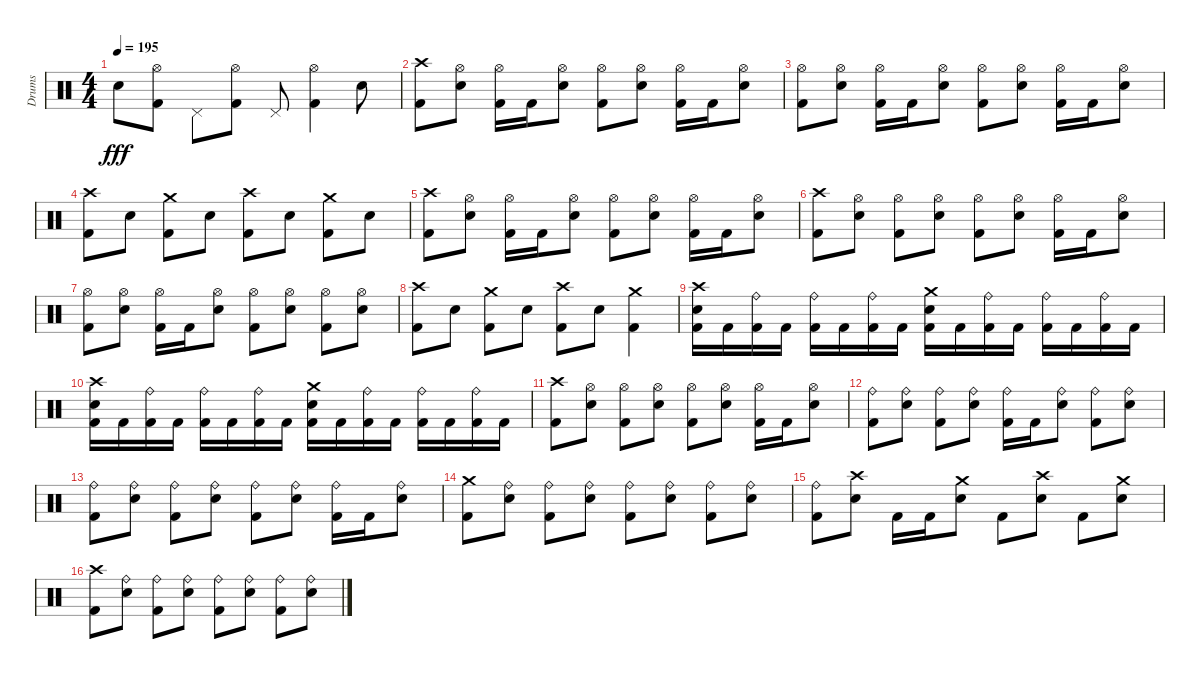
\track ("Drums" "Drums") {instrument percussion}
\staff {score}
\articulation defaults
\ts (4 4)
\tempo 195
\clef neutral
\ks c "Metronome (bell)".8{dy fff}
("Kick (hit) 2" "Hi-Hat (open)").8 "Pedal Hi-Hat (hit)".8 ("Kick (hit) 2" "Hi-Hat (open)").8 "Pedal Hi-Hat (hit)".8 ("Kick (hit) 2" "Hi-Hat (open)").4 "Metronome (bell)".8 |
("Kick (hit) 2" "Crash high (hit)").8 ("Metronome (bell)" "Hi-Hat (open)").8 ("Kick (hit) 2" "Hi-Hat (open)").16 "Kick (hit) 2".16 ("Metronome (bell)" "Hi-Hat (open)").8 ("Kick (hit) 2" "Hi-Hat (open)").8 ("Metronome (bell)" "Hi-Hat (open)").8 ("Kick (hit) 2" "Hi-Hat (open)").16 "Kick (hit) 2".16 ("Metronome (bell)" "Hi-Hat (open)").8 |
("Kick (hit) 2" "Hi-Hat (open)").8 ("Metronome (bell)" "Hi-Hat (open)").8 ("Kick (hit) 2" "Hi-Hat (open)").16 "Kick (hit) 2".16 ("Metronome (bell)" "Hi-Hat (open)").8 ("Kick (hit) 2" "Hi-Hat (open)").8 ("Metronome (bell)" "Hi-Hat (open)").8 ("Kick (hit) 2" "Hi-Hat (open)").16 "Kick (hit) 2".16 ("Metronome (bell)" "Hi-Hat (open)").8 |
("Kick (hit) 2" "Crash high (hit)").8 "Metronome (bell)".8 ("Kick (hit) 2" "Crash medium (hit)").8 "Metronome (bell)".8 ("Kick (hit) 2" "Crash high (hit)").8 "Metronome (bell)".8 ("Kick (hit) 2" "Crash medium (hit)").8 "Metronome (bell)".8 |
("Kick (hit) 2" "Crash high (hit)").8 ("Metronome (bell)" "Hi-Hat (open)").8 ("Kick (hit) 2" "Hi-Hat (open)").16 "Kick (hit) 2".16 ("Metronome (bell)" "Hi-Hat (open)").8 ("Kick (hit) 2" "Hi-Hat (open)").8 ("Metronome (bell)" "Hi-Hat (open)").8 ("Kick (hit) 2" "Hi-Hat (open)").16 "Kick (hit) 2".16 ("Metronome (bell)" "Hi-Hat (open)").8 |
("Kick (hit) 2" "Crash high (hit)").8 ("Metronome (bell)" "Hi-Hat (open)").8 ("Kick (hit) 2" "Hi-Hat (open)").8 ("Metronome (bell)" "Hi-Hat (open)").8 ("Kick (hit) 2" "Hi-Hat (open)").8 ("Metronome (bell)" "Hi-Hat (open)").8 ("Kick (hit) 2" "Hi-Hat (open)").16 "Kick (hit) 2".16 ("Metronome (bell)" "Hi-Hat (open)").8 |
("Kick (hit) 2" "Hi-Hat (open)").8 ("Metronome (bell)" "Hi-Hat (open)").8 ("Kick (hit) 2" "Hi-Hat (open)").16 "Kick (hit) 2".16 ("Metronome (bell)" "Hi-Hat (open)").8 ("Kick (hit) 2" "Hi-Hat (open)").8 ("Metronome (bell)" "Hi-Hat (open)").8 ("Kick (hit) 2" "Hi-Hat (open)").8 ("Metronome (bell)" "Hi-Hat (open)").8 |
("Kick (hit) 2" "Crash high (hit)").8 "Metronome (bell)".8 ("Kick (hit) 2" "Crash medium (hit)").8 "Metronome (bell)".8 ("Kick (hit) 2" "Crash high (hit)").8 "Metronome (bell)".8 ("Kick (hit) 2" "Crash medium (hit)").4 |
("Metronome (bell)" "Kick (hit) 2" "Crash high (hit)").16 "Kick (hit) 2".16 ("Kick (hit) 2" "Ride (bell)").16 "Kick (hit) 2".16 ("Kick (hit) 2" "Ride (bell)").16 "Kick (hit) 2".16 ("Kick (hit) 2" "Ride (bell)").16 "Kick (hit) 2".16 ("Metronome (bell)" "Kick (hit) 2" "Crash medium (hit)").16 "Kick (hit) 2".16 ("Kick (hit) 2" "Ride (bell)").16 "Kick (hit) 2".16 ("Kick (hit) 2" "Ride (bell)").16 "Kick (hit) 2".16 ("Kick (hit) 2" "Ride (bell)").16 "Kick (hit) 2".16 |
("Metronome (bell)" "Kick (hit) 2" "Crash high (hit)").16 "Kick (hit) 2".16 ("Kick (hit) 2" "Ride (bell)").16 "Kick (hit) 2".16 ("Kick (hit) 2" "Ride (bell)").16 "Kick (hit) 2".16 ("Kick (hit) 2" "Ride (bell)").16 "Kick (hit) 2".16 ("Metronome (bell)" "Kick (hit) 2" "Crash medium (hit)").16 "Kick (hit) 2".16 ("Kick (hit) 2" "Ride (bell)").16 "Kick (hit) 2".16 ("Kick (hit) 2" "Ride (bell)").16 "Kick (hit) 2".16 ("Kick (hit) 2" "Ride (bell)").16 "Kick (hit) 2".16 |
("Kick (hit) 2" "Crash high (hit)").8 ("Metronome (bell)" "Hi-Hat (open)").8 ("Kick (hit) 2" "Hi-Hat (open)").8 ("Metronome (bell)" "Hi-Hat (open)").8 ("Kick (hit) 2" "Hi-Hat (open)").8 ("Metronome (bell)" "Hi-Hat (open)").8 ("Kick (hit) 2" "Hi-Hat (open)").16 "Kick (hit) 2".16 ("Metronome (bell)" "Hi-Hat (open)").8 |
("Kick (hit) 2" "Ride (bell)").8 ("Metronome (bell)" "Ride (bell)").8 ("Kick (hit) 2" "Ride (bell)").8 ("Metronome (bell)" "Ride (bell)").8 ("Kick (hit) 2" "Ride (bell)").16 "Kick (hit) 2".16 ("Metronome (bell)" "Ride (bell)").8 ("Kick (hit) 2" "Ride (bell)").8 ("Metronome (bell)" "Ride (bell)").8 |
("Kick (hit) 2" "Ride (bell)").8 ("Metronome (bell)" "Ride (bell)").8 ("Kick (hit) 2" "Ride (bell)").8 ("Metronome (bell)" "Ride (bell)").8 ("Kick (hit) 2" "Ride (bell)").8 ("Metronome (bell)" "Ride (bell)").8 ("Kick (hit) 2" "Ride (bell)").16 "Kick (hit) 2".16 ("Metronome (bell)" "Ride (bell)").8 |
("Kick (hit) 2" "Crash medium (hit)").8 ("Metronome (bell)" "Ride (bell)").8 ("Kick (hit) 2" "Ride (bell)").8 ("Metronome (bell)" "Ride (bell)").8 ("Kick (hit) 2" "Ride (bell)").8 ("Metronome (bell)" "Ride (bell)").8 ("Kick (hit) 2" "Ride (bell)").8 ("Metronome (bell)" "Ride (bell)").8 |
("Kick (hit) 2" "Ride (bell)").8 ("Metronome (bell)" "Crash high (hit)").8 "Kick (hit) 2".16 "Kick (hit) 2".16 ("Metronome (bell)" "Crash medium (hit)").8 "Kick (hit) 2".8 ("Metronome (bell)" "Crash high (hit)").8 "Kick (hit) 2".8 ("Metronome (bell)" "Crash medium (hit)").8 |
("Kick (hit) 2" "Crash high (hit)").8 ("Metronome (bell)" "Ride (bell)").8 ("Kick (hit) 2" "Ride (bell)").8 ("Metronome (bell)" "Ride (bell)").8 ("Kick (hit) 2" "Ride (bell)").8 ("Metronome (bell)" "Ride (bell)").8 ("Kick (hit) 2" "Ride (bell)").8 ("Metronome (bell)" "Ride (bell)").8
